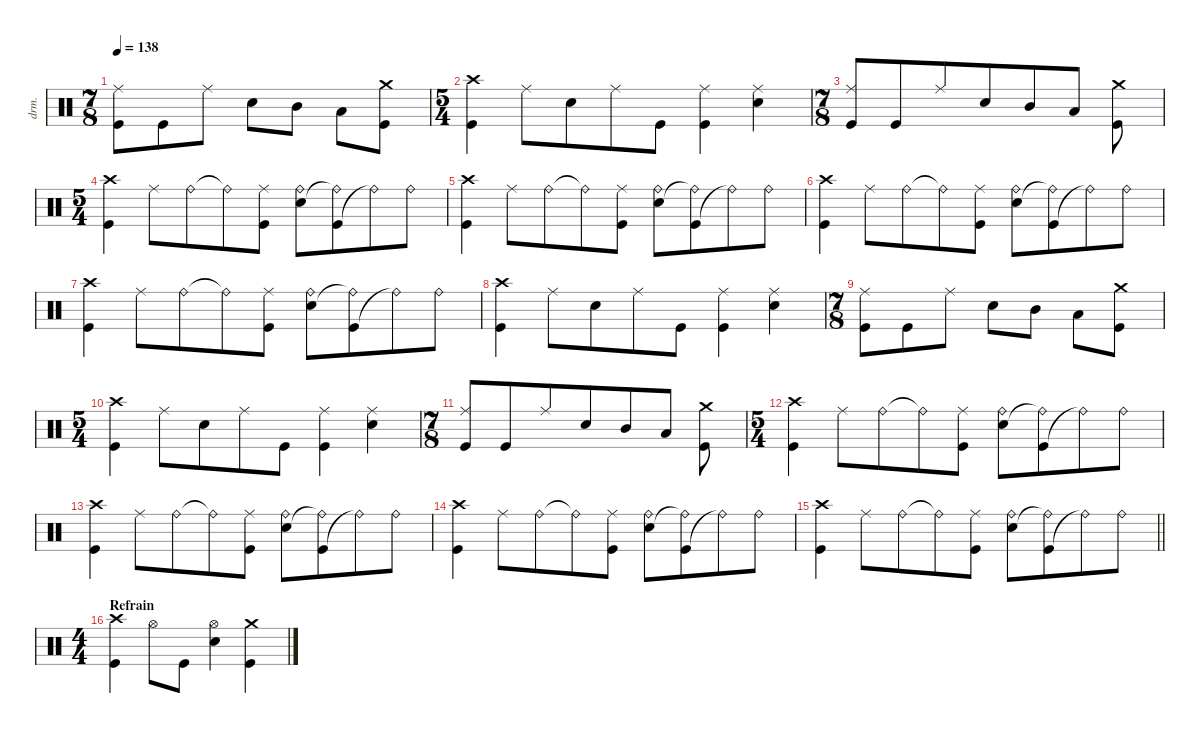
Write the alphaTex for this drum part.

\defaultSystemsLayout 4
\hideDynamics
\bracketExtendMode nobrackets
\track ("Percussions" "drm.") {instrument percussion}
\staff {score}
\articulation defaults
\ts (7 8)
\beaming (8 3 2 2)
\tempo 138
\clef neutral
\ks aminor
("Ride (middle)" "Kick (hit)").8{dy f beam Down} "Kick (hit)".8{beam Down} "Ride (middle)".8{beam Down} "Snare (hit) 2".8{beam Down} "Mid Tom (hit)".8{beam Down} "Low Tom (hit)".8{beam Down} ("Kick (hit)" "Crash medium (hit)").8{beam Down} |
\ts (5 4)
\beaming (8 6 4)
("Crash high (hit)" "Kick (hit)").4{beam Down} "Ride (middle)".8{beam Down} "Snare (hit) 2".8{beam Down} "Ride (middle)".8{beam Down} "Kick (hit)".8{beam Down} ("Ride (middle)" "Kick (hit)").4{beam Down} ("Ride (middle)" "Snare (hit) 2").4{beam Down} |
\ts (7 8)
\beaming (8 6 4)
("Ride (middle)" "Kick (hit)").8{beam Up} "Kick (hit)".8{beam Up} "Ride (middle)".8{beam Up} "Snare (hit) 2".8{beam Up} "Mid Tom (hit)".8{beam Up} "Low Tom (hit)".8{beam Up} ("Kick (hit)" "Crash medium (hit)").8{beam Down} |
\ts (5 4)
\beaming (8 6 4)
("Crash high (hit)" "Kick (hit)").4{beam Down} "Ride (middle)".8{beam Down} "Ride (bell)".8{beam Down} "Ride (bell)"{t}.8{beam Down} ("Ride (middle)" "Kick (hit)").8{beam Down} ("Ride (bell)" "Snare (hit) 2").8{beam Down} ("Kick (hit)" "Ride (bell)"{t}).8{beam Down} "Ride (bell)"{t}.8{beam Down} "Ride (bell)".8{beam Down} |
("Crash high (hit)" "Kick (hit)").4{beam Down} "Ride (middle)".8{beam Down} "Ride (bell)".8{beam Down} "Ride (bell)"{t}.8{beam Down} ("Ride (middle)" "Kick (hit)").8{beam Down} ("Ride (bell)" "Snare (hit) 2").8{beam Down} ("Kick (hit)" "Ride (bell)"{t}).8{beam Down} "Ride (bell)"{t}.8{beam Down} "Ride (bell)".8{beam Down} |
("Crash high (hit)" "Kick (hit)").4{beam Down} "Ride (middle)".8{beam Down} "Ride (bell)".8{beam Down} "Ride (bell)"{t}.8{beam Down} ("Ride (middle)" "Kick (hit)").8{beam Down} ("Ride (bell)" "Snare (hit) 2").8{beam Down} ("Kick (hit)" "Ride (bell)"{t}).8{beam Down} "Ride (bell)"{t}.8{beam Down} "Ride (bell)".8{beam Down} |
("Crash high (hit)" "Kick (hit)").4{beam Down} "Ride (middle)".8{beam Down} "Ride (bell)".8{beam Down} "Ride (bell)"{t}.8{beam Down} ("Ride (middle)" "Kick (hit)").8{beam Down} ("Ride (bell)" "Snare (hit) 2").8{beam Down} ("Kick (hit)" "Ride (bell)"{t}).8{beam Down} "Ride (bell)"{t}.8{beam Down} "Ride (bell)".8{beam Down} |
("Crash high (hit)" "Kick (hit)").4{beam Down} "Ride (middle)".8{beam Down} "Snare (hit) 2".8{beam Down} "Ride (middle)".8{beam Down} "Kick (hit)".8{beam Down} ("Ride (middle)" "Kick (hit)").4{beam Down} ("Ride (middle)" "Snare (hit) 2").4{beam Down} |
\ts (7 8)
\beaming (8 3 2 2)
("Ride (middle)" "Kick (hit)").8{beam Down} "Kick (hit)".8{beam Down} "Ride (middle)".8{beam Down} "Snare (hit) 2".8{beam Down} "Mid Tom (hit)".8{beam Down} "Low Tom (hit)".8{beam Down} ("Kick (hit)" "Crash medium (hit)").8{beam Down} |
\ts (5 4)
\beaming (8 6 4)
("Crash high (hit)" "Kick (hit)").4{beam Down} "Ride (middle)".8{beam Down} "Snare (hit) 2".8{beam Down} "Ride (middle)".8{beam Down} "Kick (hit)".8{beam Down} ("Ride (middle)" "Kick (hit)").4{beam Down} ("Ride (middle)" "Snare (hit) 2").4{beam Down} |
\ts (7 8)
\beaming (8 6 4)
("Ride (middle)" "Kick (hit)").8{beam Up} "Kick (hit)".8{beam Up} "Ride (middle)".8{beam Up} "Snare (hit) 2".8{beam Up} "Mid Tom (hit)".8{beam Up} "Low Tom (hit)".8{beam Up} ("Kick (hit)" "Crash medium (hit)").8{beam Down} |
\ts (5 4)
\beaming (8 6 4)
("Crash high (hit)" "Kick (hit)").4{beam Down} "Ride (middle)".8{beam Down} "Ride (bell)".8{beam Down} "Ride (bell)"{t}.8{beam Down} ("Ride (middle)" "Kick (hit)").8{beam Down} ("Ride (bell)" "Snare (hit) 2").8{beam Down} ("Kick (hit)" "Ride (bell)"{t}).8{beam Down} "Ride (bell)"{t}.8{beam Down} "Ride (bell)".8{beam Down} |
("Crash high (hit)" "Kick (hit)").4{beam Down} "Ride (middle)".8{beam Down} "Ride (bell)".8{beam Down} "Ride (bell)"{t}.8{beam Down} ("Ride (middle)" "Kick (hit)").8{beam Down} ("Ride (bell)" "Snare (hit) 2").8{beam Down} ("Kick (hit)" "Ride (bell)"{t}).8{beam Down} "Ride (bell)"{t}.8{beam Down} "Ride (bell)".8{beam Down} |
("Crash high (hit)" "Kick (hit)").4{beam Down} "Ride (middle)".8{beam Down} "Ride (bell)".8{beam Down} "Ride (bell)"{t}.8{beam Down} ("Ride (middle)" "Kick (hit)").8{beam Down} ("Ride (bell)" "Snare (hit) 2").8{beam Down} ("Kick (hit)" "Ride (bell)"{t}).8{beam Down} "Ride (bell)"{t}.8{beam Down} "Ride (bell)".8{beam Down} |
\barLineRight lightlight
("Crash high (hit)" "Kick (hit)").4{beam Down} "Ride (middle)".8{beam Down} "Ride (bell)".8{beam Down} "Ride (bell)"{t}.8{beam Down} ("Ride (middle)" "Kick (hit)").8{beam Down} ("Ride (bell)" "Snare (hit) 2").8{beam Down} ("Kick (hit)" "Ride (bell)"{t}).8{beam Down} "Ride (bell)"{t}.8{beam Down} "Ride (bell)".8{beam Down} |
\ts (4 4)
\beaming (8 2 2 2 2)
\section ("" "Refrain")
("Kick (hit)" "Crash high (hit)").4{beam Down} "Hi-Hat (open)".8{beam Down} "Kick (hit)".8{beam Down} ("Hi-Hat (open)" "Snare (hit) 2").4{beam Down} ("Crash medium (hit)" "Kick (hit)").4{beam Down}
